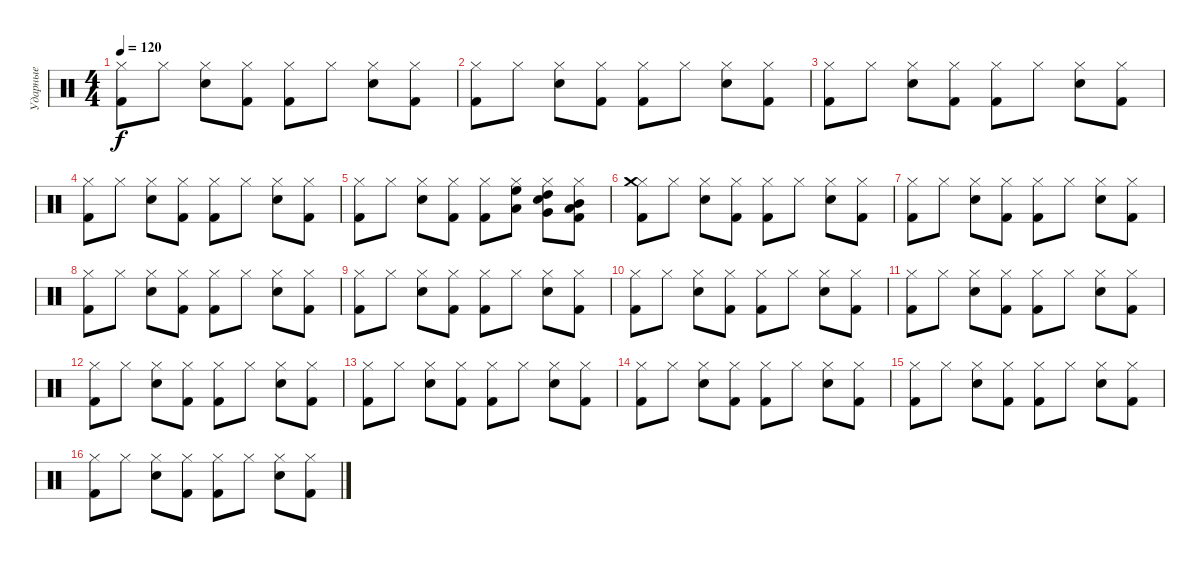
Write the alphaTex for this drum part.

\track ("Ударные" "Ударные") {instrument percussion}
\staff {score}
\articulation defaults
\ts (4 4)
\tempo 120
\clef neutral
\ks c
("Kick (hit) 2" "Hi-Hat (closed)").8{dy f} "Hi-Hat (closed)".8 ("Electric Snare (hit)" "Hi-Hat (closed)").8 ("Kick (hit) 2" "Hi-Hat (closed)").8 ("Kick (hit) 2" "Hi-Hat (closed)").8 "Hi-Hat (closed)".8 ("Electric Snare (hit)" "Hi-Hat (closed)").8 ("Kick (hit) 2" "Hi-Hat (closed)").8 |
("Kick (hit) 2" "Hi-Hat (closed)").8 "Hi-Hat (closed)".8 ("Electric Snare (hit)" "Hi-Hat (closed)").8 ("Kick (hit) 2" "Hi-Hat (closed)").8 ("Kick (hit) 2" "Hi-Hat (closed)").8 "Hi-Hat (closed)".8 ("Electric Snare (hit)" "Hi-Hat (closed)").8 ("Kick (hit) 2" "Hi-Hat (closed)").8 |
("Kick (hit) 2" "Hi-Hat (closed)").8 "Hi-Hat (closed)".8 ("Electric Snare (hit)" "Hi-Hat (closed)").8 ("Kick (hit) 2" "Hi-Hat (closed)").8 ("Kick (hit) 2" "Hi-Hat (closed)").8 "Hi-Hat (closed)".8 ("Electric Snare (hit)" "Hi-Hat (closed)").8 ("Kick (hit) 2" "Hi-Hat (closed)").8 |
("Kick (hit) 2" "Hi-Hat (closed)").8 "Hi-Hat (closed)".8 ("Electric Snare (hit)" "Hi-Hat (closed)").8 ("Kick (hit) 2" "Hi-Hat (closed)").8 ("Kick (hit) 2" "Hi-Hat (closed)").8 "Hi-Hat (closed)".8 ("Electric Snare (hit)" "Hi-Hat (closed)").8 ("Kick (hit) 2" "Hi-Hat (closed)").8 |
("Kick (hit) 2" "Hi-Hat (closed)").8 "Hi-Hat (closed)".8 ("Electric Snare (hit)" "Hi-Hat (closed)").8 ("Kick (hit) 2" "Hi-Hat (closed)").8 ("Kick (hit) 2" "Hi-Hat (closed)").8 ("Hi-Hat (closed)" "Low Tom (hit)" "High Floor Tom (hit)").8 ("Electric Snare (hit)" "Hi-Hat (closed)" "Very Low Tom (hit)" "High Tom (hit)").8 ("Kick (hit) 2" "Hi-Hat (closed)" "Low Floor Tom (hit)" "Mid Tom (hit)").8 |
("Kick (hit) 2" "Hi-Hat (closed)" "Crash medium (hit)").8 "Hi-Hat (closed)".8 ("Electric Snare (hit)" "Hi-Hat (closed)").8 ("Kick (hit) 2" "Hi-Hat (closed)").8 ("Kick (hit) 2" "Hi-Hat (closed)").8 "Hi-Hat (closed)".8 ("Electric Snare (hit)" "Hi-Hat (closed)").8 ("Kick (hit) 2" "Hi-Hat (closed)").8 |
("Kick (hit) 2" "Hi-Hat (closed)").8 "Hi-Hat (closed)".8 ("Electric Snare (hit)" "Hi-Hat (closed)").8 ("Kick (hit) 2" "Hi-Hat (closed)").8 ("Kick (hit) 2" "Hi-Hat (closed)").8 "Hi-Hat (closed)".8 ("Electric Snare (hit)" "Hi-Hat (closed)").8 ("Kick (hit) 2" "Hi-Hat (closed)").8 |
("Kick (hit) 2" "Hi-Hat (closed)").8 "Hi-Hat (closed)".8 ("Electric Snare (hit)" "Hi-Hat (closed)").8 ("Kick (hit) 2" "Hi-Hat (closed)").8 ("Kick (hit) 2" "Hi-Hat (closed)").8 "Hi-Hat (closed)".8 ("Electric Snare (hit)" "Hi-Hat (closed)").8 ("Kick (hit) 2" "Hi-Hat (closed)").8 |
("Kick (hit) 2" "Hi-Hat (closed)").8 "Hi-Hat (closed)".8 ("Electric Snare (hit)" "Hi-Hat (closed)").8 ("Kick (hit) 2" "Hi-Hat (closed)").8 ("Kick (hit) 2" "Hi-Hat (closed)").8 "Hi-Hat (closed)".8 ("Electric Snare (hit)" "Hi-Hat (closed)").8 ("Kick (hit) 2" "Hi-Hat (closed)").8 |
("Kick (hit) 2" "Hi-Hat (closed)").8 "Hi-Hat (closed)".8 ("Electric Snare (hit)" "Hi-Hat (closed)").8 ("Kick (hit) 2" "Hi-Hat (closed)").8 ("Kick (hit) 2" "Hi-Hat (closed)").8 "Hi-Hat (closed)".8 ("Electric Snare (hit)" "Hi-Hat (closed)").8 ("Kick (hit) 2" "Hi-Hat (closed)").8 |
("Kick (hit) 2" "Hi-Hat (closed)").8 "Hi-Hat (closed)".8 ("Electric Snare (hit)" "Hi-Hat (closed)").8 ("Kick (hit) 2" "Hi-Hat (closed)").8 ("Kick (hit) 2" "Hi-Hat (closed)").8 "Hi-Hat (closed)".8 ("Electric Snare (hit)" "Hi-Hat (closed)").8 ("Kick (hit) 2" "Hi-Hat (closed)").8 |
("Kick (hit) 2" "Hi-Hat (closed)").8 "Hi-Hat (closed)".8 ("Electric Snare (hit)" "Hi-Hat (closed)").8 ("Kick (hit) 2" "Hi-Hat (closed)").8 ("Kick (hit) 2" "Hi-Hat (closed)").8 "Hi-Hat (closed)".8 ("Electric Snare (hit)" "Hi-Hat (closed)").8 ("Kick (hit) 2" "Hi-Hat (closed)").8 |
("Kick (hit) 2" "Hi-Hat (closed)").8 "Hi-Hat (closed)".8 ("Electric Snare (hit)" "Hi-Hat (closed)").8 ("Kick (hit) 2" "Hi-Hat (closed)").8 ("Kick (hit) 2" "Hi-Hat (closed)").8 "Hi-Hat (closed)".8 ("Electric Snare (hit)" "Hi-Hat (closed)").8 ("Kick (hit) 2" "Hi-Hat (closed)").8 |
("Kick (hit) 2" "Hi-Hat (closed)").8 "Hi-Hat (closed)".8 ("Electric Snare (hit)" "Hi-Hat (closed)").8 ("Kick (hit) 2" "Hi-Hat (closed)").8 ("Kick (hit) 2" "Hi-Hat (closed)").8 "Hi-Hat (closed)".8 ("Electric Snare (hit)" "Hi-Hat (closed)").8 ("Kick (hit) 2" "Hi-Hat (closed)").8 |
("Kick (hit) 2" "Hi-Hat (closed)").8 "Hi-Hat (closed)".8 ("Electric Snare (hit)" "Hi-Hat (closed)").8 ("Kick (hit) 2" "Hi-Hat (closed)").8 ("Kick (hit) 2" "Hi-Hat (closed)").8 "Hi-Hat (closed)".8 ("Electric Snare (hit)" "Hi-Hat (closed)").8 ("Kick (hit) 2" "Hi-Hat (closed)").8 |
("Kick (hit) 2" "Hi-Hat (closed)").8 "Hi-Hat (closed)".8 ("Electric Snare (hit)" "Hi-Hat (closed)").8 ("Kick (hit) 2" "Hi-Hat (closed)").8 ("Kick (hit) 2" "Hi-Hat (closed)").8 "Hi-Hat (closed)".8 ("Electric Snare (hit)" "Hi-Hat (closed)").8 ("Kick (hit) 2" "Hi-Hat (closed)").8
